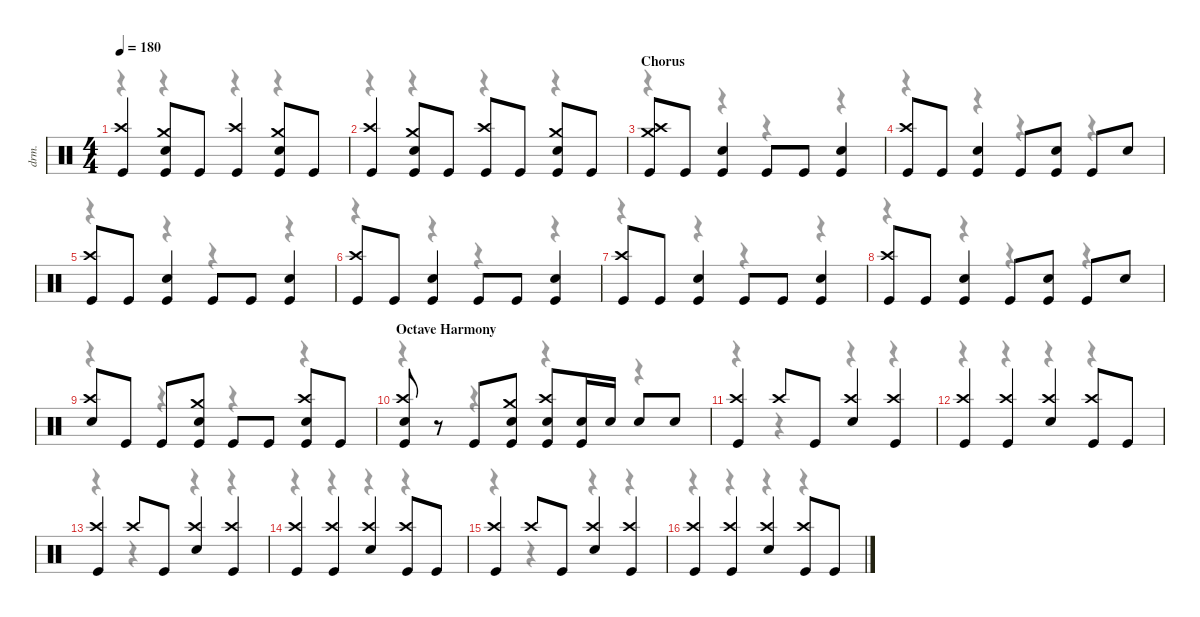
\defaultSystemsLayout 4
\hideDynamics
\bracketExtendMode nobrackets
\track ("Drums" "drm.") {instrument percussion}
\staff {score}
\articulation defaults
\voice
\ts (4 4)
\tempo 180
\clef neutral
\ks c
("Crash high (hit)" "Kick (hit)").4{dy f} ("Crash medium (hit)" "Snare (hit) 2" "Kick (hit)").8 "Kick (hit)".8 ("Crash high (hit)" "Kick (hit)").4 ("Crash medium (hit)" "Snare (hit) 2" "Kick (hit)").8 "Kick (hit)".8 |
("Crash high (hit)" "Kick (hit)").4 ("Crash medium (hit)" "Snare (hit) 2" "Kick (hit)").8 "Kick (hit)".8 ("Crash high (hit)" "Kick (hit)").8 "Kick (hit)".8 ("Crash medium (hit)" "Snare (hit) 2" "Kick (hit)").8 "Kick (hit)".8 |
\section ("" "Chorus")
("Crash high (hit)" "Crash medium (hit)" "Kick (hit)").8 "Kick (hit)".8 ("Snare (hit) 2" "Kick (hit)").4 "Kick (hit)".8 "Kick (hit)".8 ("Snare (hit) 2" "Kick (hit)").4 |
("Crash high (hit)" "Kick (hit)").8 "Kick (hit)".8 ("Snare (hit) 2" "Kick (hit)").4 "Kick (hit)".8 ("Snare (hit) 2" "Kick (hit)").8 "Kick (hit)".8 "Snare (hit) 2".8 |
("Crash high (hit)" "Kick (hit)").8 "Kick (hit)".8 ("Snare (hit) 2" "Kick (hit)").4 "Kick (hit)".8 "Kick (hit)".8 ("Snare (hit) 2" "Kick (hit)").4 |
("Crash high (hit)" "Kick (hit)").8 "Kick (hit)".8 ("Snare (hit) 2" "Kick (hit)").4 "Kick (hit)".8 "Kick (hit)".8 ("Snare (hit) 2" "Kick (hit)").4 |
("Crash high (hit)" "Kick (hit)").8 "Kick (hit)".8 ("Snare (hit) 2" "Kick (hit)").4 "Kick (hit)".8 "Kick (hit)".8 ("Snare (hit) 2" "Kick (hit)").4 |
("Crash high (hit)" "Kick (hit)").8 "Kick (hit)".8 ("Snare (hit) 2" "Kick (hit)").4 "Kick (hit)".8 ("Snare (hit) 2" "Kick (hit)").8 "Kick (hit)".8 "Snare (hit) 2".8 |
("Crash high (hit)" "Snare (hit) 2").8 "Kick (hit)".8 "Kick (hit)".8 ("Crash medium (hit)" "Snare (hit) 2" "Kick (hit)").8 "Kick (hit)".8 "Kick (hit)".8 ("Crash high (hit)" "Snare (hit) 2" "Kick (hit)").8 "Kick (hit)".8 |
\section ("" "Octave Harmony")
("Crash high (hit)" "Snare (hit) 2" "Kick (hit)").8 r.8 "Kick (hit)".8 ("Crash medium (hit)" "Snare (hit) 2" "Kick (hit)").8 ("Crash high (hit)" "Snare (hit) 2" "Kick (hit)").8 ("Snare (hit) 2" "Kick (hit)").16 "Snare (hit) 2".16 "Snare (hit) 2".8 "Snare (hit) 2".8 |
("Crash high (hit)" "Kick (hit)").4 "Crash high (hit)".8 "Kick (hit)".8 ("Crash high (hit)" "Snare (hit) 2").4 ("Crash high (hit)" "Kick (hit)").4 |
("Crash high (hit)" "Kick (hit)").4 ("Crash high (hit)" "Kick (hit)").4 ("Crash high (hit)" "Snare (hit) 2").4 ("Crash high (hit)" "Kick (hit)").8 "Kick (hit)".8 |
("Crash high (hit)" "Kick (hit)").4 "Crash high (hit)".8 "Kick (hit)".8 ("Crash high (hit)" "Snare (hit) 2").4 ("Crash high (hit)" "Kick (hit)").4 |
("Crash high (hit)" "Kick (hit)").4 ("Crash high (hit)" "Kick (hit)").4 ("Crash high (hit)" "Snare (hit) 2").4 ("Crash high (hit)" "Kick (hit)").8 "Kick (hit)".8 |
("Crash high (hit)" "Kick (hit)").4 "Crash high (hit)".8 "Kick (hit)".8 ("Crash high (hit)" "Snare (hit) 2").4 ("Crash high (hit)" "Kick (hit)").4 |
("Crash high (hit)" "Kick (hit)").4 ("Crash high (hit)" "Kick (hit)").4 ("Crash high (hit)" "Snare (hit) 2").4 ("Crash high (hit)" "Kick (hit)").8 "Kick (hit)".8
\voice
\clef neutral
\ottava regular
\simile none
\ks c
r.4{dy mf} r.4 r.4 r.4 |
r.4 r.4 r.4 r.4 |
r.4 r.4 r.4 r.4 |
r.4 r.4 r.4 r.4 |
r.4 r.4 r.4 r.4 |
r.4 r.4 r.4 r.4 |
r.4 r.4 r.4 r.4 |
r.4 r.4 r.4 r.4 |
r.4 r.4 r.4 r.4 |
r.4 r.4 r.4 r.4 |
r.4 r.4 r.4 r.4 |
r.4 r.4 r.4 r.4 |
r.4 r.4 r.4 r.4 |
r.4 r.4 r.4 r.4 |
r.4 r.4 r.4 r.4 |
r.4 r.4 r.4 r.4
